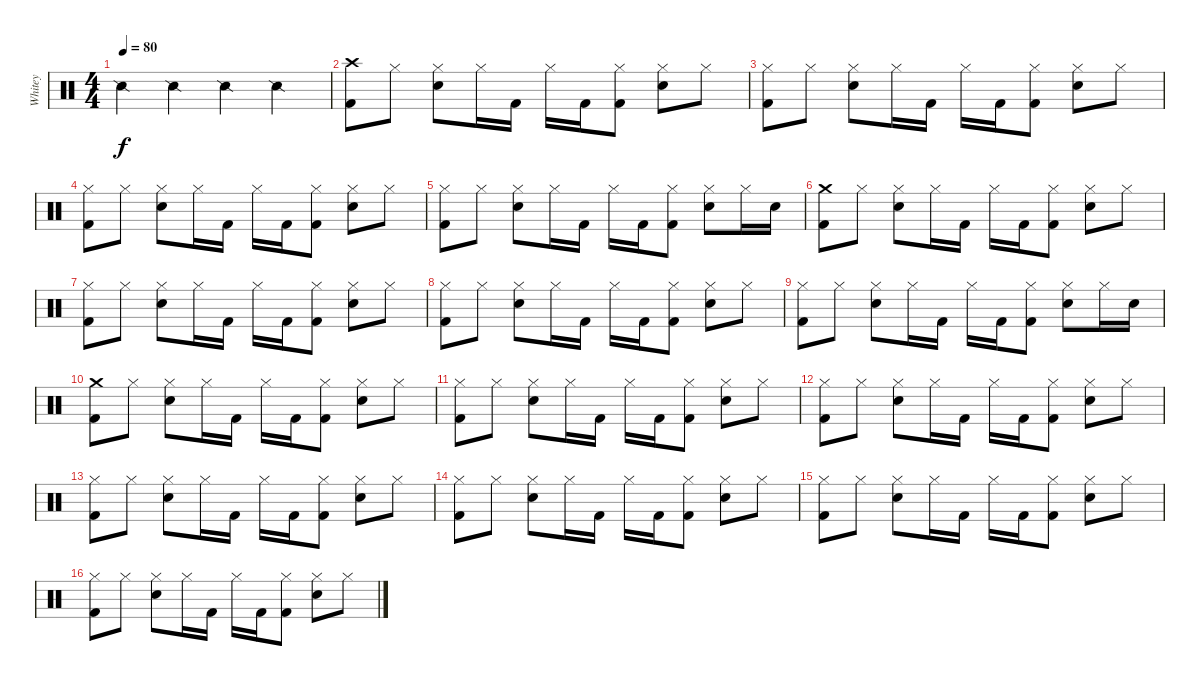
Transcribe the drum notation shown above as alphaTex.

\track ("Whitey" "Whitey") {instrument percussion}
\staff {score}
\articulation defaults
\ts (4 4)
\tempo 80
\clef neutral
\ks c "Snare (side stick) 2".4{dy f} "Snare (side stick) 2".4 "Snare (side stick) 2".4 "Snare (side stick) 2".4
|
("Crash high (hit)" "Kick (hit) 2").8 "Hi-Hat (closed)".8 ("Hi-Hat (closed)" "Snare (hit) 2").8 "Hi-Hat (closed)".16 "Kick (hit) 2".16 "Hi-Hat (closed)".16 "Kick (hit) 2".16 ("Hi-Hat (closed)" "Kick (hit) 2").8 ("Hi-Hat (closed)" "Snare (hit) 2").8 "Hi-Hat (closed)".8 |
("Hi-Hat (closed)" "Kick (hit) 2").8 "Hi-Hat (closed)".8 ("Hi-Hat (closed)" "Snare (hit) 2").8 "Hi-Hat (closed)".16 "Kick (hit) 2".16 "Hi-Hat (closed)".16 "Kick (hit) 2".16 ("Hi-Hat (closed)" "Kick (hit) 2").8 ("Hi-Hat (closed)" "Snare (hit) 2").8 "Hi-Hat (closed)".8 |
("Hi-Hat (closed)" "Kick (hit) 2").8 "Hi-Hat (closed)".8 ("Hi-Hat (closed)" "Snare (hit) 2").8 "Hi-Hat (closed)".16 "Kick (hit) 2".16 "Hi-Hat (closed)".16 "Kick (hit) 2".16 ("Hi-Hat (closed)" "Kick (hit) 2").8 ("Hi-Hat (closed)" "Snare (hit) 2").8 "Hi-Hat (closed)".8 |
("Hi-Hat (closed)" "Kick (hit) 2").8 "Hi-Hat (closed)".8 ("Hi-Hat (closed)" "Snare (hit) 2").8 "Hi-Hat (closed)".16 "Kick (hit) 2".16 "Hi-Hat (closed)".16 "Kick (hit) 2".16 ("Hi-Hat (closed)" "Kick (hit) 2").8 ("Hi-Hat (closed)" "Snare (hit) 2").8 "Hi-Hat (closed)".16 "Snare (hit) 2".16 |
("Crash medium (hit)" "Kick (hit) 2").8 "Hi-Hat (closed)".8 ("Hi-Hat (closed)" "Snare (hit) 2").8 "Hi-Hat (closed)".16 "Kick (hit) 2".16 "Hi-Hat (closed)".16 "Kick (hit) 2".16 ("Hi-Hat (closed)" "Kick (hit) 2").8 ("Hi-Hat (closed)" "Snare (hit) 2").8 "Hi-Hat (closed)".8 |
("Hi-Hat (closed)" "Kick (hit) 2").8 "Hi-Hat (closed)".8 ("Hi-Hat (closed)" "Snare (hit) 2").8 "Hi-Hat (closed)".16 "Kick (hit) 2".16 "Hi-Hat (closed)".16 "Kick (hit) 2".16 ("Hi-Hat (closed)" "Kick (hit) 2").8 ("Hi-Hat (closed)" "Snare (hit) 2").8 "Hi-Hat (closed)".8 |
("Hi-Hat (closed)" "Kick (hit) 2").8 "Hi-Hat (closed)".8 ("Hi-Hat (closed)" "Snare (hit) 2").8 "Hi-Hat (closed)".16 "Kick (hit) 2".16 "Hi-Hat (closed)".16 "Kick (hit) 2".16 ("Hi-Hat (closed)" "Kick (hit) 2").8 ("Hi-Hat (closed)" "Snare (hit) 2").8 "Hi-Hat (closed)".8 |
("Hi-Hat (closed)" "Kick (hit) 2").8 "Hi-Hat (closed)".8 ("Hi-Hat (closed)" "Snare (hit) 2").8 "Hi-Hat (closed)".16 "Kick (hit) 2".16 "Hi-Hat (closed)".16 "Kick (hit) 2".16 ("Hi-Hat (closed)" "Kick (hit) 2").8 ("Hi-Hat (closed)" "Snare (hit) 2").8 "Hi-Hat (closed)".16 "Snare (hit) 2".16 |
("Crash medium (hit)" "Kick (hit) 2").8 "Hi-Hat (closed)".8 ("Hi-Hat (closed)" "Snare (hit) 2").8 "Hi-Hat (closed)".16 "Kick (hit) 2".16 "Hi-Hat (closed)".16 "Kick (hit) 2".16 ("Hi-Hat (closed)" "Kick (hit) 2").8 ("Hi-Hat (closed)" "Snare (hit) 2").8 "Hi-Hat (closed)".8 |
("Hi-Hat (closed)" "Kick (hit) 2").8 "Hi-Hat (closed)".8 ("Hi-Hat (closed)" "Snare (hit) 2").8 "Hi-Hat (closed)".16 "Kick (hit) 2".16 "Hi-Hat (closed)".16 "Kick (hit) 2".16 ("Hi-Hat (closed)" "Kick (hit) 2").8 ("Hi-Hat (closed)" "Snare (hit) 2").8 "Hi-Hat (closed)".8 |
("Hi-Hat (closed)" "Kick (hit) 2").8 "Hi-Hat (closed)".8 ("Hi-Hat (closed)" "Snare (hit) 2").8 "Hi-Hat (closed)".16 "Kick (hit) 2".16 "Hi-Hat (closed)".16 "Kick (hit) 2".16 ("Hi-Hat (closed)" "Kick (hit) 2").8 ("Hi-Hat (closed)" "Snare (hit) 2").8 "Hi-Hat (closed)".8 |
("Hi-Hat (closed)" "Kick (hit) 2").8 "Hi-Hat (closed)".8 ("Hi-Hat (closed)" "Snare (hit) 2").8 "Hi-Hat (closed)".16 "Kick (hit) 2".16 "Hi-Hat (closed)".16 "Kick (hit) 2".16 ("Hi-Hat (closed)" "Kick (hit) 2").8 ("Hi-Hat (closed)" "Snare (hit) 2").8 "Hi-Hat (closed)".8 |
("Hi-Hat (closed)" "Kick (hit) 2").8 "Hi-Hat (closed)".8 ("Hi-Hat (closed)" "Snare (hit) 2").8 "Hi-Hat (closed)".16 "Kick (hit) 2".16 "Hi-Hat (closed)".16 "Kick (hit) 2".16 ("Hi-Hat (closed)" "Kick (hit) 2").8 ("Hi-Hat (closed)" "Snare (hit) 2").8 "Hi-Hat (closed)".8 |
("Hi-Hat (closed)" "Kick (hit) 2").8 "Hi-Hat (closed)".8 ("Hi-Hat (closed)" "Snare (hit) 2").8 "Hi-Hat (closed)".16 "Kick (hit) 2".16 "Hi-Hat (closed)".16 "Kick (hit) 2".16 ("Hi-Hat (closed)" "Kick (hit) 2").8 ("Hi-Hat (closed)" "Snare (hit) 2").8 "Hi-Hat (closed)".8 |
("Hi-Hat (closed)" "Kick (hit) 2").8 "Hi-Hat (closed)".8 ("Hi-Hat (closed)" "Snare (hit) 2").8 "Hi-Hat (closed)".16 "Kick (hit) 2".16 "Hi-Hat (closed)".16 "Kick (hit) 2".16 ("Hi-Hat (closed)" "Kick (hit) 2").8 ("Hi-Hat (closed)" "Snare (hit) 2").8 "Hi-Hat (closed)".8
